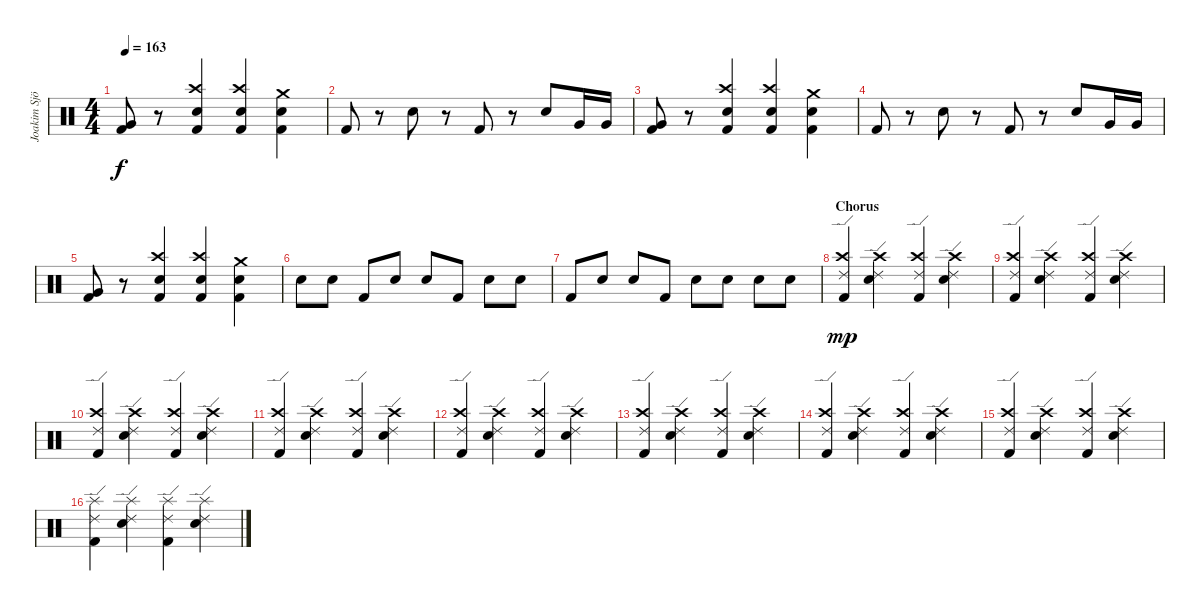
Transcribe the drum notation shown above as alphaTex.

\track ("Joakim Sjöberg" "Joakim Sjö") {instrument percussion}
\staff {score}
\articulation defaults
\ts (4 4)
\tempo 163
\clef neutral
\ks c
("Very Low Tom (hit)" "Kick (hit) 2").8{dy f} r.8 ("Crash high (hit)" "Electric Snare (hit)" "Kick (hit) 2").4 ("Crash high (hit)" "Electric Snare (hit)" "Kick (hit) 2").4 ("Crash medium (hit)" "Electric Snare (hit)" "Kick (hit) 2").4 |
"Kick (hit) 2".8 r.8 "Electric Snare (hit)".8 r.8 "Kick (hit) 2".8 r.8 "Electric Snare (hit)".8 "Very Low Tom (hit)".16 "Very Low Tom (hit)".16 |
("Very Low Tom (hit)" "Kick (hit) 2").8 r.8 ("Crash high (hit)" "Electric Snare (hit)" "Kick (hit) 2").4 ("Crash high (hit)" "Electric Snare (hit)" "Kick (hit) 2").4 ("Crash medium (hit)" "Electric Snare (hit)" "Kick (hit) 2").4 |
"Kick (hit) 2".8 r.8 "Electric Snare (hit)".8 r.8 "Kick (hit) 2".8 r.8 "Electric Snare (hit)".8 "Very Low Tom (hit)".16 "Very Low Tom (hit)".16 |
("Very Low Tom (hit)" "Kick (hit) 2").8 r.8 ("Crash high (hit)" "Electric Snare (hit)" "Kick (hit) 2").4 ("Crash high (hit)" "Electric Snare (hit)" "Kick (hit) 2").4 ("Crash medium (hit)" "Electric Snare (hit)" "Kick (hit) 2").4 |
"Electric Snare (hit)".8 "Electric Snare (hit)".8 "Kick (hit) 2".8 "Electric Snare (hit)".8 "Electric Snare (hit)".8 "Kick (hit) 2".8 "Electric Snare (hit)".8 "Electric Snare (hit)".8 |
"Kick (hit) 2".8 "Electric Snare (hit)".8 "Electric Snare (hit)".8 "Kick (hit) 2".8 "Electric Snare (hit)".8 "Electric Snare (hit)".8 "Electric Snare (hit)".8 "Electric Snare (hit)".8 |
\section ("" "Chorus")
("Crash high (hit)" "Ride (edge) 2" "Kick (hit) 2").4{dy mp} ("Crash high (hit)" "Ride (edge) 2" "Electric Snare (hit)").4 ("Crash high (hit)" "Ride (edge) 2" "Kick (hit) 2").4 ("Crash high (hit)" "Ride (edge) 2" "Electric Snare (hit)").4 |
("Crash high (hit)" "Ride (edge) 2" "Kick (hit) 2").4 ("Crash high (hit)" "Ride (edge) 2" "Electric Snare (hit)").4 ("Crash high (hit)" "Ride (edge) 2" "Kick (hit) 2").4 ("Crash high (hit)" "Ride (edge) 2" "Electric Snare (hit)").4 |
("Crash high (hit)" "Ride (edge) 2" "Kick (hit) 2").4 ("Crash high (hit)" "Ride (edge) 2" "Electric Snare (hit)").4 ("Crash high (hit)" "Ride (edge) 2" "Kick (hit) 2").4 ("Crash high (hit)" "Ride (edge) 2" "Electric Snare (hit)").4 |
("Crash high (hit)" "Ride (edge) 2" "Kick (hit) 2").4 ("Crash high (hit)" "Ride (edge) 2" "Electric Snare (hit)").4 ("Crash high (hit)" "Ride (edge) 2" "Kick (hit) 2").4 ("Crash high (hit)" "Ride (edge) 2" "Electric Snare (hit)").4 |
("Crash high (hit)" "Ride (edge) 2" "Kick (hit) 2").4 ("Crash high (hit)" "Ride (edge) 2" "Electric Snare (hit)").4 ("Crash high (hit)" "Ride (edge) 2" "Kick (hit) 2").4 ("Crash high (hit)" "Ride (edge) 2" "Electric Snare (hit)").4 |
("Crash high (hit)" "Ride (edge) 2" "Kick (hit) 2").4 ("Crash high (hit)" "Ride (edge) 2" "Electric Snare (hit)").4 ("Crash high (hit)" "Ride (edge) 2" "Kick (hit) 2").4 ("Crash high (hit)" "Ride (edge) 2" "Electric Snare (hit)").4 |
("Crash high (hit)" "Ride (edge) 2" "Kick (hit) 2").4 ("Crash high (hit)" "Ride (edge) 2" "Electric Snare (hit)").4 ("Crash high (hit)" "Ride (edge) 2" "Kick (hit) 2").4 ("Crash high (hit)" "Ride (edge) 2" "Electric Snare (hit)").4 |
("Crash high (hit)" "Ride (edge) 2" "Kick (hit) 2").4 ("Crash high (hit)" "Ride (edge) 2" "Electric Snare (hit)").4 ("Crash high (hit)" "Ride (edge) 2" "Kick (hit) 2").4 ("Crash high (hit)" "Ride (edge) 2" "Electric Snare (hit)").4 |
("Splash (hit)" "Ride (edge) 2" "Kick (hit) 2").4 ("Splash (hit)" "Ride (edge) 2" "Electric Snare (hit)").4 ("Splash (hit)" "Ride (edge) 2" "Kick (hit) 2").4 ("Splash (hit)" "Ride (edge) 2" "Electric Snare (hit)").4
